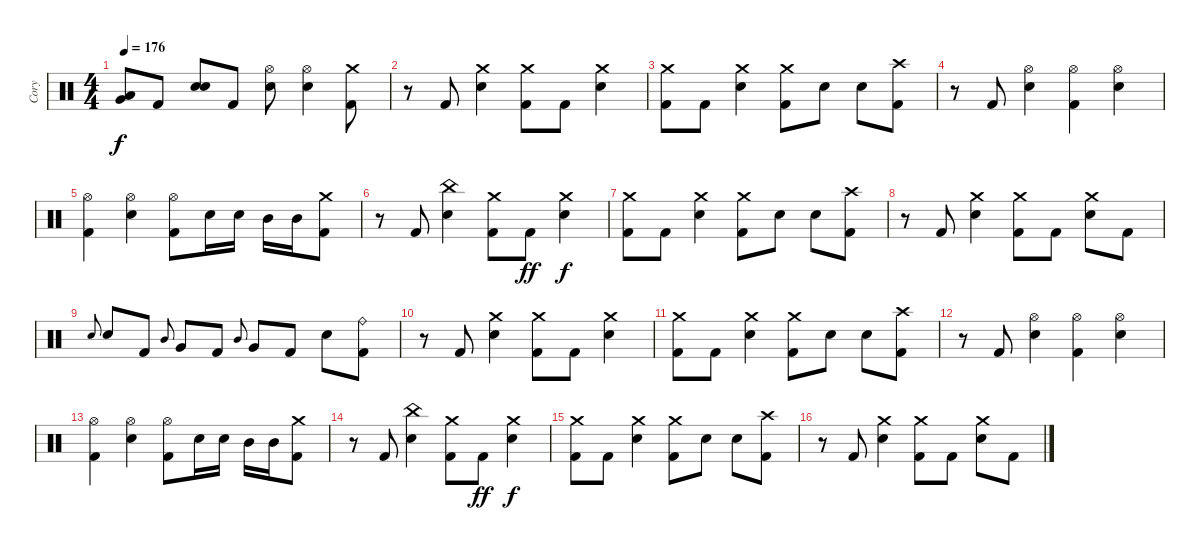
\track ("Cory" "Cory") {instrument percussion}
\staff {score}
\articulation defaults
\ts (4 4)
\tempo 176
\clef neutral
\ks c
("Low Tom (hit)" "Very Low Tom (hit)").8{dy f} "Kick (hit) 2".8 ("Snare (hit) 2" "Snare (hit) 2").8 "Kick (hit) 2".8 ("Hi-Hat (open)" "Snare (hit) 2").8 ("Hi-Hat (open)" "Snare (hit) 2").4 ("Crash medium (hit)" "Kick (hit) 2").8 |
r.8 "Kick (hit) 2".8 ("Crash medium (hit)" "Snare (hit) 2").4 ("Crash medium (hit)" "Kick (hit) 2").8 "Kick (hit) 2".8 ("Crash medium (hit)" "Snare (hit) 2").4 |
("Crash medium (hit)" "Kick (hit) 2").8 "Kick (hit) 2".8 ("Crash medium (hit)" "Snare (hit) 2").4 ("Crash medium (hit)" "Kick (hit) 2").8 "Snare (hit) 2".8 "Snare (hit) 2".8 ("Crash high (hit)" "Kick (hit) 2").8 |
r.8 "Kick (hit) 2".8 ("Hi-Hat (open)" "Snare (hit) 2").4 ("Hi-Hat (open)" "Kick (hit) 2").4 ("Hi-Hat (open)" "Snare (hit) 2").4 |
("Hi-Hat (open)" "Kick (hit) 2").4 ("Hi-Hat (open)" "Snare (hit) 2").4 ("Hi-Hat (open)" "Kick (hit) 2").8 "Snare (hit) 2".16 "Snare (hit) 2".16 "Mid Tom (hit)".16 "Mid Tom (hit)".16 ("Crash medium (hit)" "Kick (hit) 2").8 |
r.8 "Kick (hit) 2".8 ("China (hit)" "Snare (hit) 2").4 ("Crash medium (hit)" "Kick (hit) 2").8 "Kick (hit) 2".8{dy ff} ("Crash medium (hit)" "Snare (hit) 2").4{dy f} |
("Crash medium (hit)" "Kick (hit) 2").8 "Kick (hit) 2".8 ("Crash medium (hit)" "Snare (hit) 2").4 ("Crash medium (hit)" "Kick (hit) 2").8 "Snare (hit) 2".8 "Snare (hit) 2".8 ("Crash high (hit)" "Kick (hit) 2").8 |
r.8 "Kick (hit) 2".8 ("Crash medium (hit)" "Snare (hit) 2").4 ("Crash medium (hit)" "Kick (hit) 2").8 "Kick (hit) 2".8 ("Crash medium (hit)" "Snare (hit) 2").8 "Kick (hit) 2".8 |
"Snare (hit) 2".8{gr onbeat} "Snare (hit) 2".8 "Kick (hit) 2".8 "Mid Tom (hit)".8{gr onbeat} "Very Low Tom (hit)".8 "Kick (hit) 2".8 "Mid Tom (hit)".8{gr onbeat} "Very Low Tom (hit)".8 "Kick (hit) 2".8 "Snare (hit) 2".8 ("Ride (bell)" "Kick (hit) 2").8 |
r.8 "Kick (hit) 2".8 ("Crash medium (hit)" "Snare (hit) 2").4 ("Crash medium (hit)" "Kick (hit) 2").8 "Kick (hit) 2".8 ("Crash medium (hit)" "Snare (hit) 2").4 |
("Crash medium (hit)" "Kick (hit) 2").8 "Kick (hit) 2".8 ("Crash medium (hit)" "Snare (hit) 2").4 ("Crash medium (hit)" "Kick (hit) 2").8 "Snare (hit) 2".8 "Snare (hit) 2".8 ("Crash high (hit)" "Kick (hit) 2").8 |
r.8 "Kick (hit) 2".8 ("Hi-Hat (open)" "Snare (hit) 2").4 ("Hi-Hat (open)" "Kick (hit) 2").4 ("Hi-Hat (open)" "Snare (hit) 2").4 |
("Hi-Hat (open)" "Kick (hit) 2").4 ("Hi-Hat (open)" "Snare (hit) 2").4 ("Hi-Hat (open)" "Kick (hit) 2").8 "Snare (hit) 2".16 "Snare (hit) 2".16 "Mid Tom (hit)".16 "Mid Tom (hit)".16 ("Crash medium (hit)" "Kick (hit) 2").8 |
r.8 "Kick (hit) 2".8 ("China (hit)" "Snare (hit) 2").4 ("Crash medium (hit)" "Kick (hit) 2").8 "Kick (hit) 2".8{dy ff} ("Crash medium (hit)" "Snare (hit) 2").4{dy f} |
("Crash medium (hit)" "Kick (hit) 2").8 "Kick (hit) 2".8 ("Crash medium (hit)" "Snare (hit) 2").4 ("Crash medium (hit)" "Kick (hit) 2").8 "Snare (hit) 2".8 "Snare (hit) 2".8 ("Crash high (hit)" "Kick (hit) 2").8 |
r.8 "Kick (hit) 2".8 ("Crash medium (hit)" "Snare (hit) 2").4 ("Crash medium (hit)" "Kick (hit) 2").8 "Kick (hit) 2".8 ("Crash medium (hit)" "Snare (hit) 2").8 "Kick (hit) 2".8
